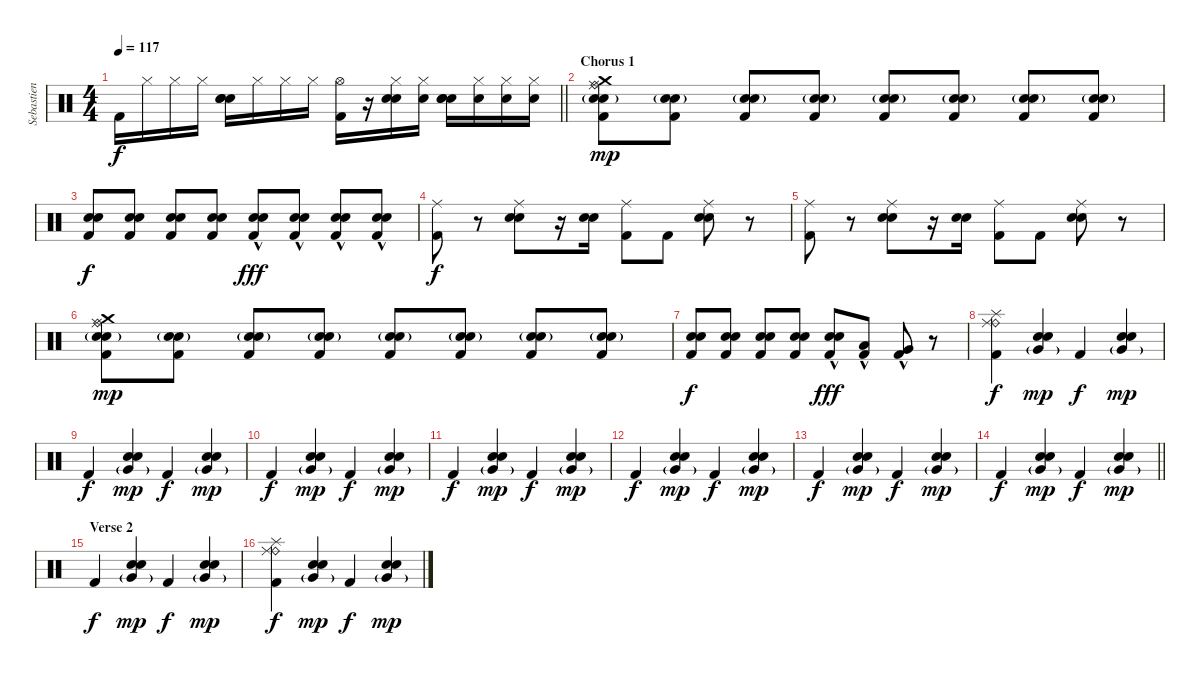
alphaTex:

\track ("Sebastien Grainger Drums" "Sebastien ") {instrument percussion}
\staff {score}
\articulation defaults
\ts (4 4)
\tempo 117
\clef neutral
\barLineRight lightlight
\ks c "Kick (hit) 2".16{dy f} "Hi-Hat (closed)".16 "Hi-Hat (closed)".16 "Hi-Hat (closed)".16
("Hand Clap (hit)" "Electric Snare (hit)" "Snare (hit) 2").16 "Hi-Hat (closed)".16 "Hi-Hat (closed)".16 "Hi-Hat (closed)".16 ("Hi-Hat (open)" "Kick (hit) 2").16 r.16 ("Hand Clap (hit)" "Hi-Hat (closed)" "Snare (hit) 2").16 ("Hi-Hat (closed)" "Snare (hit) 2").16 ("Hand Clap (hit)" "Electric Snare (hit)" "Snare (hit) 2").16 ("Hi-Hat (closed)" "Snare (hit) 2").16 ("Hi-Hat (closed)" "Snare (hit) 2").16 ("Hi-Hat (closed)" "Snare (hit) 2").16 |
\section ("" "Chorus 1")
("Kick (hit) 2" "Snare (hit) 2"{g} "Electric Snare (hit)"{g} "Crash medium (hit)" "Ride (middle)" "Ride (bell)").8{dy mp} ("Kick (hit) 2" "Snare (hit) 2"{g} "Electric Snare (hit)"{g}).8 ("Kick (hit) 2" "Snare (hit) 2"{g} "Electric Snare (hit)"{g}).8 ("Kick (hit) 2" "Snare (hit) 2"{g} "Electric Snare (hit)"{g}).8 ("Kick (hit) 2" "Snare (hit) 2"{g} "Electric Snare (hit)"{g}).8 ("Kick (hit) 2" "Snare (hit) 2"{g} "Electric Snare (hit)").8 ("Kick (hit) 2" "Snare (hit) 2"{g} "Electric Snare (hit)").8 ("Kick (hit) 2" "Snare (hit) 2"{g} "Electric Snare (hit)").8 |
("Kick (hit) 2" "Snare (hit) 2" "Electric Snare (hit)").8{dy f} ("Kick (hit) 2" "Snare (hit) 2" "Electric Snare (hit)").8 ("Kick (hit) 2" "Snare (hit) 2" "Electric Snare (hit)").8 ("Kick (hit) 2" "Snare (hit) 2" "Electric Snare (hit)").8 ("Kick (hit) 2" "Snare (hit) 2"{hac} "Electric Snare (hit)").8{dy fff} ("Kick (hit) 2" "Snare (hit) 2"{hac} "Electric Snare (hit)").8 ("Kick (hit) 2" "Snare (hit) 2"{hac} "Electric Snare (hit)"{hac}).8 ("Kick (hit) 2" "Snare (hit) 2"{hac} "Electric Snare (hit)"{hac}).8 |
("Ride (middle)" "Kick (hit) 2").8{dy f} r.8 ("Ride (middle)" "Snare (hit) 2" "Electric Snare (hit)").8 r.16 ("Snare (hit) 2" "Electric Snare (hit)").16 ("Ride (middle)" "Kick (hit) 2").8 "Kick (hit) 2".8 ("Ride (middle)" "Snare (hit) 2" "Electric Snare (hit)").8 r.8 |
("Ride (middle)" "Kick (hit) 2").8 r.8 ("Ride (middle)" "Snare (hit) 2" "Electric Snare (hit)").8 r.16 ("Snare (hit) 2" "Electric Snare (hit)").16 ("Ride (middle)" "Kick (hit) 2").8 "Kick (hit) 2".8 ("Ride (middle)" "Snare (hit) 2" "Electric Snare (hit)").8 r.8 |
("Kick (hit) 2" "Snare (hit) 2"{g} "Electric Snare (hit)"{g} "Crash medium (hit)" "Ride (middle)" "Ride (bell)").8{dy mp} ("Kick (hit) 2" "Snare (hit) 2"{g} "Electric Snare (hit)"{g}).8 ("Kick (hit) 2" "Snare (hit) 2"{g} "Electric Snare (hit)"{g}).8 ("Kick (hit) 2" "Snare (hit) 2"{g} "Electric Snare (hit)"{g}).8 ("Kick (hit) 2" "Snare (hit) 2"{g} "Electric Snare (hit)"{g}).8 ("Kick (hit) 2" "Snare (hit) 2"{g} "Electric Snare (hit)").8 ("Kick (hit) 2" "Snare (hit) 2"{g} "Electric Snare (hit)").8 ("Kick (hit) 2" "Snare (hit) 2"{g} "Electric Snare (hit)").8 |
("Kick (hit) 2" "Snare (hit) 2" "Electric Snare (hit)").8{dy f} ("Kick (hit) 2" "Snare (hit) 2" "Electric Snare (hit)").8 ("Kick (hit) 2" "Snare (hit) 2" "Electric Snare (hit)").8 ("Kick (hit) 2" "Snare (hit) 2" "Electric Snare (hit)").8 ("Kick (hit) 2" "Snare (hit) 2"{hac} "Electric Snare (hit)").8{dy fff} ("Kick (hit) 2" "Low Tom (hit)"{hac}).8 ("Kick (hit) 2" "Very Low Tom (hit)"{hac}).8 r.8 |
("Splash (hit)" "Ride (bell)" "Ride (middle)" "Kick (hit) 2").4{dy f} ("Very Low Tom (hit)"{g} "Electric Snare (hit)" "Snare (hit) 2").4{dy mp} "Kick (hit) 2".4{dy f} ("Very Low Tom (hit)"{g} "Electric Snare (hit)" "Snare (hit) 2").4{dy mp} |
"Kick (hit) 2".4{dy f} ("Very Low Tom (hit)"{g} "Electric Snare (hit)" "Snare (hit) 2").4{dy mp} "Kick (hit) 2".4{dy f} ("Very Low Tom (hit)"{g} "Electric Snare (hit)" "Snare (hit) 2").4{dy mp} |
"Kick (hit) 2".4{dy f} ("Very Low Tom (hit)"{g} "Electric Snare (hit)" "Snare (hit) 2").4{dy mp} "Kick (hit) 2".4{dy f} ("Very Low Tom (hit)"{g} "Electric Snare (hit)" "Snare (hit) 2").4{dy mp} |
"Kick (hit) 2".4{dy f} ("Very Low Tom (hit)"{g} "Electric Snare (hit)" "Snare (hit) 2").4{dy mp} "Kick (hit) 2".4{dy f} ("Very Low Tom (hit)"{g} "Electric Snare (hit)" "Snare (hit) 2").4{dy mp} |
"Kick (hit) 2".4{dy f} ("Very Low Tom (hit)"{g} "Electric Snare (hit)" "Snare (hit) 2").4{dy mp} "Kick (hit) 2".4{dy f} ("Very Low Tom (hit)"{g} "Electric Snare (hit)" "Snare (hit) 2").4{dy mp} |
"Kick (hit) 2".4{dy f} ("Very Low Tom (hit)"{g} "Electric Snare (hit)" "Snare (hit) 2").4{dy mp} "Kick (hit) 2".4{dy f} ("Very Low Tom (hit)"{g} "Electric Snare (hit)" "Snare (hit) 2").4{dy mp} |
\barLineRight lightlight "Kick (hit) 2".4{dy f}
("Very Low Tom (hit)"{g} "Electric Snare (hit)" "Snare (hit) 2").4{dy mp} "Kick (hit) 2".4{dy f} ("Very Low Tom (hit)"{g} "Electric Snare (hit)" "Snare (hit) 2").4{dy mp} |
\section ("" "Verse 2")
"Kick (hit) 2".4{dy f} ("Very Low Tom (hit)"{g} "Electric Snare (hit)" "Snare (hit) 2").4{dy mp} "Kick (hit) 2".4{dy f} ("Very Low Tom (hit)"{g} "Electric Snare (hit)" "Snare (hit) 2").4{dy mp} |
("Splash (hit)" "Ride (bell)" "Ride (middle)" "Kick (hit) 2").4{dy f} ("Very Low Tom (hit)"{g} "Electric Snare (hit)" "Snare (hit) 2").4{dy mp} "Kick (hit) 2".4{dy f} ("Very Low Tom (hit)"{g} "Electric Snare (hit)" "Snare (hit) 2").4{dy mp}
